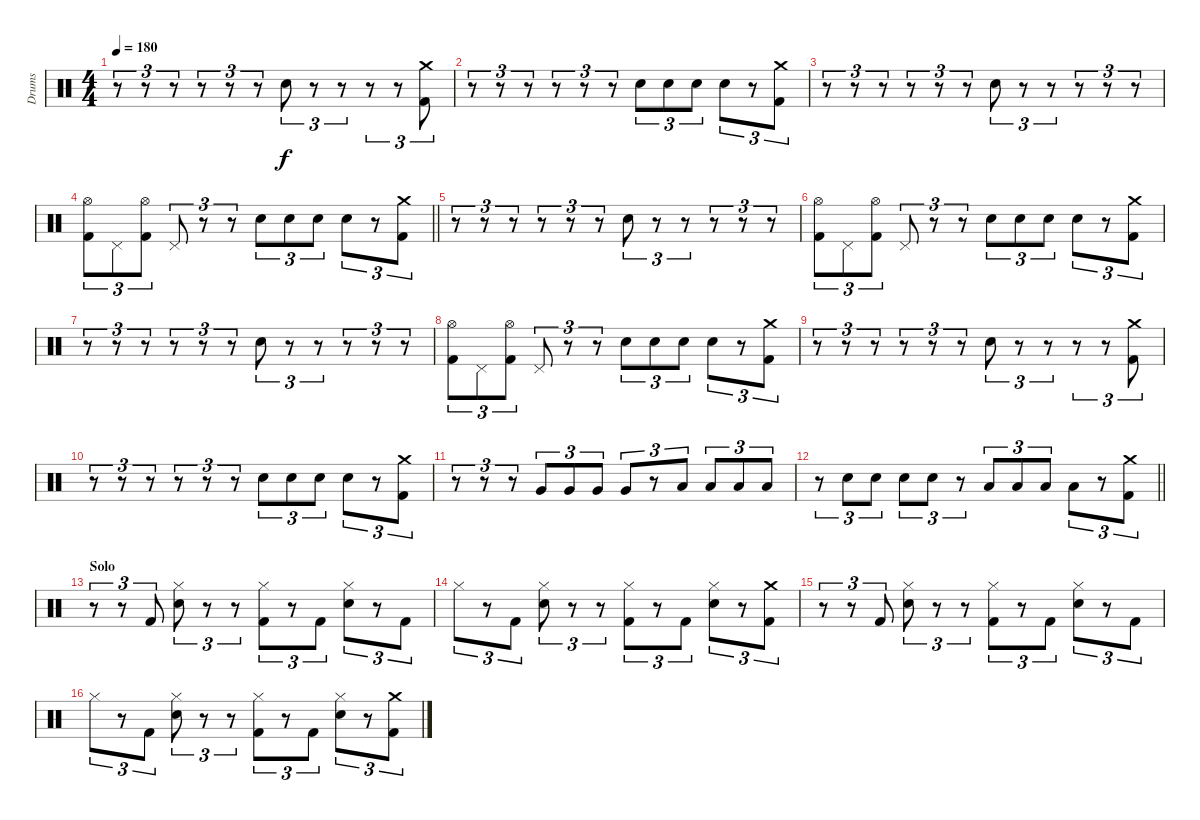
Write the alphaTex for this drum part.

\track ("Drums" "Drums") {instrument percussion}
\staff {score}
\articulation defaults
\ts (4 4)
\tempo 180
\clef neutral
\ks c
r.8{tu (3 2) dy f} r.8{tu (3 2)} r.8{tu (3 2)} r.8{tu (3 2)} r.8{tu (3 2)} r.8{tu (3 2)} "Snare (hit) 2".8{tu (3 2)} r.8{tu (3 2)} r.8{tu (3 2)} r.8{tu (3 2)} r.8{tu (3 2)} ("Crash medium (hit)" "Kick (hit) 2").8{tu (3 2)} |
r.8{tu (3 2)} r.8{tu (3 2)} r.8{tu (3 2)} r.8{tu (3 2)} r.8{tu (3 2)} r.8{tu (3 2)} "Snare (hit) 2".8{tu (3 2)} "Snare (hit) 2".8{tu (3 2)} "Snare (hit) 2".8{tu (3 2)} "Snare (hit) 2".8{tu (3 2)} r.8{tu (3 2)} ("Crash medium (hit)" "Kick (hit) 2").8{tu (3 2)} |
r.8{tu (3 2)} r.8{tu (3 2)} r.8{tu (3 2)} r.8{tu (3 2)} r.8{tu (3 2)} r.8{tu (3 2)} "Snare (hit) 2".8{tu (3 2)} r.8{tu (3 2)} r.8{tu (3 2)} r.8{tu (3 2)} r.8{tu (3 2)} r.8{tu (3 2)} |
\barLineRight lightlight
("Hi-Hat (open)" "Kick (hit) 2").8{tu (3 2)} "Pedal Hi-Hat (hit)".8{tu (3 2)} ("Hi-Hat (open)" "Kick (hit) 2").8{tu (3 2)} "Pedal Hi-Hat (hit)".8{tu (3 2)} r.8{tu (3 2)} r.8{tu (3 2)} "Snare (hit) 2".8{tu (3 2)} "Snare (hit) 2".8{tu (3 2)} "Snare (hit) 2".8{tu (3 2)} "Snare (hit) 2".8{tu (3 2)} r.8{tu (3 2)} ("Crash medium (hit)" "Kick (hit) 2").8{tu (3 2)} |
r.8{tu (3 2)} r.8{tu (3 2)} r.8{tu (3 2)} r.8{tu (3 2)} r.8{tu (3 2)} r.8{tu (3 2)} "Snare (hit) 2".8{tu (3 2)} r.8{tu (3 2)} r.8{tu (3 2)} r.8{tu (3 2)} r.8{tu (3 2)} r.8{tu (3 2)} |
("Hi-Hat (open)" "Kick (hit) 2").8{tu (3 2)} "Pedal Hi-Hat (hit)".8{tu (3 2)} ("Hi-Hat (open)" "Kick (hit) 2").8{tu (3 2)} "Pedal Hi-Hat (hit)".8{tu (3 2)} r.8{tu (3 2)} r.8{tu (3 2)} "Snare (hit) 2".8{tu (3 2)} "Snare (hit) 2".8{tu (3 2)} "Snare (hit) 2".8{tu (3 2)} "Snare (hit) 2".8{tu (3 2)} r.8{tu (3 2)} ("Crash medium (hit)" "Kick (hit) 2").8{tu (3 2)} |
r.8{tu (3 2)} r.8{tu (3 2)} r.8{tu (3 2)} r.8{tu (3 2)} r.8{tu (3 2)} r.8{tu (3 2)} "Snare (hit) 2".8{tu (3 2)} r.8{tu (3 2)} r.8{tu (3 2)} r.8{tu (3 2)} r.8{tu (3 2)} r.8{tu (3 2)} |
("Hi-Hat (open)" "Kick (hit) 2").8{tu (3 2)} "Pedal Hi-Hat (hit)".8{tu (3 2)} ("Hi-Hat (open)" "Kick (hit) 2").8{tu (3 2)} "Pedal Hi-Hat (hit)".8{tu (3 2)} r.8{tu (3 2)} r.8{tu (3 2)} "Snare (hit) 2".8{tu (3 2)} "Snare (hit) 2".8{tu (3 2)} "Snare (hit) 2".8{tu (3 2)} "Snare (hit) 2".8{tu (3 2)} r.8{tu (3 2)} ("Crash medium (hit)" "Kick (hit) 2").8{tu (3 2)} |
r.8{tu (3 2)} r.8{tu (3 2)} r.8{tu (3 2)} r.8{tu (3 2)} r.8{tu (3 2)} r.8{tu (3 2)} "Snare (hit) 2".8{tu (3 2)} r.8{tu (3 2)} r.8{tu (3 2)} r.8{tu (3 2)} r.8{tu (3 2)} ("Crash medium (hit)" "Kick (hit) 2").8{tu (3 2)} |
r.8{tu (3 2)} r.8{tu (3 2)} r.8{tu (3 2)} r.8{tu (3 2)} r.8{tu (3 2)} r.8{tu (3 2)} "Snare (hit) 2".8{tu (3 2)} "Snare (hit) 2".8{tu (3 2)} "Snare (hit) 2".8{tu (3 2)} "Snare (hit) 2".8{tu (3 2)} r.8{tu (3 2)} ("Crash medium (hit)" "Kick (hit) 2").8{tu (3 2)} |
r.8{tu (3 2)} r.8{tu (3 2)} r.8{tu (3 2)} "Very Low Tom (hit)".8{tu (3 2)} "Very Low Tom (hit)".8{tu (3 2)} "Very Low Tom (hit)".8{tu (3 2)} "Very Low Tom (hit)".8{tu (3 2)} r.8{tu (3 2)} "Low Floor Tom (hit)".8{tu (3 2)} "Low Floor Tom (hit)".8{tu (3 2)} "Low Floor Tom (hit)".8{tu (3 2)} "Low Floor Tom (hit)".8{tu (3 2)} |
\barLineRight lightlight
r.8{tu (3 2)} "Snare (hit) 2".8{tu (3 2)} "Snare (hit) 2".8{tu (3 2)} "Snare (hit) 2".8{tu (3 2)} "Snare (hit) 2".8{tu (3 2)} r.8{tu (3 2)} "Low Tom (hit)".8{tu (3 2)} "Low Tom (hit)".8{tu (3 2)} "Low Tom (hit)".8{tu (3 2)} "Low Tom (hit)".8{tu (3 2)} r.8{tu (3 2)} ("Crash medium (hit)" "Kick (hit) 2").8{tu (3 2)} |
\section ("" "Solo")
r.8{tu (3 2)} r.8{tu (3 2)} "Kick (hit) 2".8{tu (3 2)} ("Hi-Hat (closed)" "Snare (hit) 2").8{tu (3 2)} r.8{tu (3 2)} r.8{tu (3 2)} ("Hi-Hat (closed)" "Kick (hit) 2").8{tu (3 2)} r.8{tu (3 2)} "Kick (hit) 2".8{tu (3 2)} ("Hi-Hat (closed)" "Snare (hit) 2").8{tu (3 2)} r.8{tu (3 2)} "Kick (hit) 2".8{tu (3 2)} |
"Hi-Hat (closed)".8{tu (3 2)} r.8{tu (3 2)} "Kick (hit) 2".8{tu (3 2)} ("Hi-Hat (closed)" "Snare (hit) 2").8{tu (3 2)} r.8{tu (3 2)} r.8{tu (3 2)} ("Hi-Hat (closed)" "Kick (hit) 2").8{tu (3 2)} r.8{tu (3 2)} "Kick (hit) 2".8{tu (3 2)} ("Hi-Hat (closed)" "Snare (hit) 2").8{tu (3 2)} r.8{tu (3 2)} ("Crash medium (hit)" "Kick (hit) 2").8{tu (3 2)} |
r.8{tu (3 2)} r.8{tu (3 2)} "Kick (hit) 2".8{tu (3 2)} ("Hi-Hat (closed)" "Snare (hit) 2").8{tu (3 2)} r.8{tu (3 2)} r.8{tu (3 2)} ("Hi-Hat (closed)" "Kick (hit) 2").8{tu (3 2)} r.8{tu (3 2)} "Kick (hit) 2".8{tu (3 2)} ("Hi-Hat (closed)" "Snare (hit) 2").8{tu (3 2)} r.8{tu (3 2)} "Kick (hit) 2".8{tu (3 2)} |
"Hi-Hat (closed)".8{tu (3 2)} r.8{tu (3 2)} "Kick (hit) 2".8{tu (3 2)} ("Hi-Hat (closed)" "Snare (hit) 2").8{tu (3 2)} r.8{tu (3 2)} r.8{tu (3 2)} ("Hi-Hat (closed)" "Kick (hit) 2").8{tu (3 2)} r.8{tu (3 2)} "Kick (hit) 2".8{tu (3 2)} ("Hi-Hat (closed)" "Snare (hit) 2").8{tu (3 2)} r.8{tu (3 2)} ("Crash medium (hit)" "Kick (hit) 2").8{tu (3 2)}
